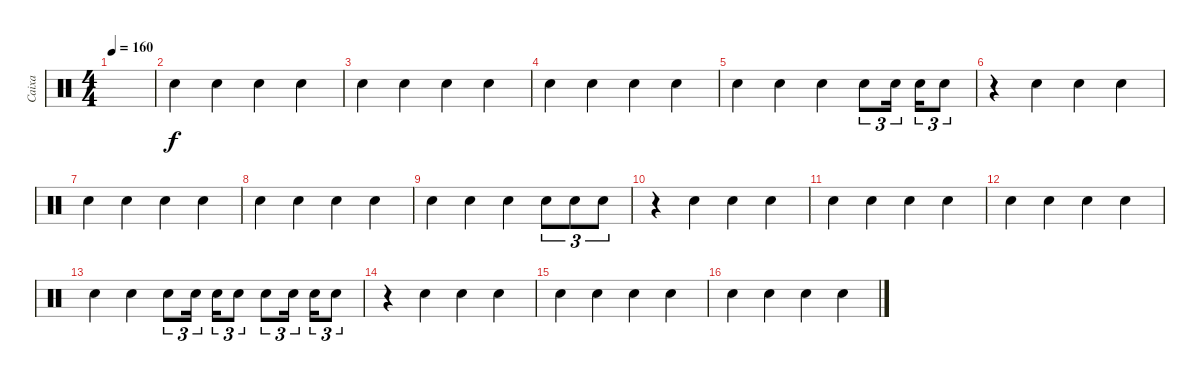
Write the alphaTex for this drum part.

\track ("Caixa" "Caixa") {instrument percussion}
\staff {score}
\articulation defaults
\ts (4 4)
\tempo 160
\clef neutral
\ks c
|
"Electric Snare (hit)".4 "Electric Snare (hit)".4 "Electric Snare (hit)".4 "Electric Snare (hit)".4 |
"Electric Snare (hit)".4 "Electric Snare (hit)".4 "Electric Snare (hit)".4 "Electric Snare (hit)".4 |
"Electric Snare (hit)".4 "Electric Snare (hit)".4 "Electric Snare (hit)".4 "Electric Snare (hit)".4 |
"Electric Snare (hit)".4 "Electric Snare (hit)".4 "Electric Snare (hit)".4 "Electric Snare (hit)".8{tu (3 2)} "Electric Snare (hit)".16{tu (3 2)} "Electric Snare (hit)".16{tu (3 2)} "Electric Snare (hit)".8{tu (3 2)} |
r.4 "Electric Snare (hit)".4 "Electric Snare (hit)".4 "Electric Snare (hit)".4 |
"Electric Snare (hit)".4 "Electric Snare (hit)".4 "Electric Snare (hit)".4 "Electric Snare (hit)".4 |
"Electric Snare (hit)".4 "Electric Snare (hit)".4 "Electric Snare (hit)".4 "Electric Snare (hit)".4 |
"Electric Snare (hit)".4 "Electric Snare (hit)".4 "Electric Snare (hit)".4 "Electric Snare (hit)".8{tu (3 2)} "Electric Snare (hit)".8{tu (3 2)} "Electric Snare (hit)".8{tu (3 2)} |
r.4 "Electric Snare (hit)".4 "Electric Snare (hit)".4 "Electric Snare (hit)".4 |
"Electric Snare (hit)".4 "Electric Snare (hit)".4 "Electric Snare (hit)".4 "Electric Snare (hit)".4 |
"Electric Snare (hit)".4 "Electric Snare (hit)".4 "Electric Snare (hit)".4 "Electric Snare (hit)".4 |
"Electric Snare (hit)".4 "Electric Snare (hit)".4 "Electric Snare (hit)".8{tu (3 2)} "Electric Snare (hit)".16{tu (3 2)} "Electric Snare (hit)".16{tu (3 2)} "Electric Snare (hit)".8{tu (3 2)} "Electric Snare (hit)".8{tu (3 2)} "Electric Snare (hit)".16{tu (3 2)} "Electric Snare (hit)".16{tu (3 2)} "Electric Snare (hit)".8{tu (3 2)} |
r.4 "Electric Snare (hit)".4 "Electric Snare (hit)".4 "Electric Snare (hit)".4 |
"Electric Snare (hit)".4 "Electric Snare (hit)".4 "Electric Snare (hit)".4 "Electric Snare (hit)".4 |
"Electric Snare (hit)".4 "Electric Snare (hit)".4 "Electric Snare (hit)".4 "Electric Snare (hit)".4
